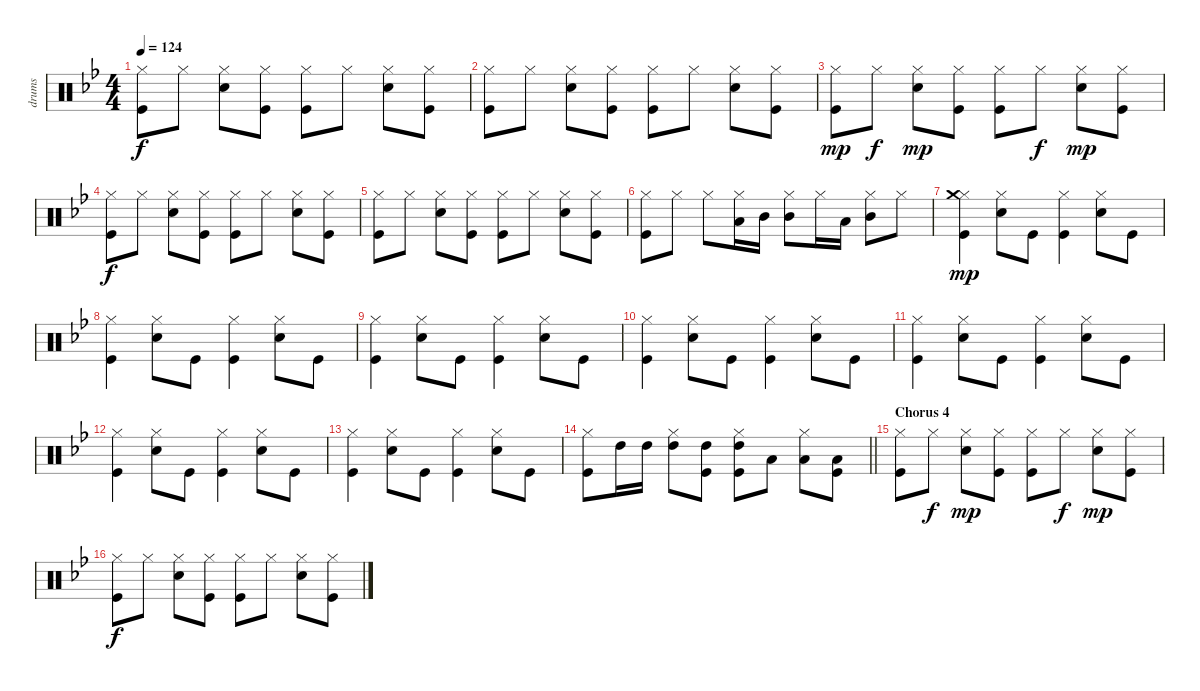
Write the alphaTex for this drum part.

\track ("drums" "drums") {instrument percussion}
\staff {score}
\articulation defaults
\ts (4 4)
\tempo 124
\clef neutral
\ks bb
("Hi-Hat (closed)" "Kick (hit)").8{dy f} "Hi-Hat (closed)".8 ("Electric Snare (hit)" "Hi-Hat (closed)").8 ("Hi-Hat (closed)" "Kick (hit)").8 ("Hi-Hat (closed)" "Kick (hit)").8 "Hi-Hat (closed)".8 ("Electric Snare (hit)" "Hi-Hat (closed)").8 ("Hi-Hat (closed)" "Kick (hit)").8 |
("Hi-Hat (closed)" "Kick (hit)").8 "Hi-Hat (closed)".8 ("Electric Snare (hit)" "Hi-Hat (closed)").8 ("Hi-Hat (closed)" "Kick (hit)").8 ("Hi-Hat (closed)" "Kick (hit)").8 "Hi-Hat (closed)".8 ("Electric Snare (hit)" "Hi-Hat (closed)").8 ("Hi-Hat (closed)" "Kick (hit)").8 |
("Hi-Hat (closed)" "Kick (hit)").8{dy mp} "Hi-Hat (closed)".8{dy f} ("Electric Snare (hit)" "Hi-Hat (closed)").8{dy mp} ("Hi-Hat (closed)" "Kick (hit)").8 ("Hi-Hat (closed)" "Kick (hit)").8 "Hi-Hat (closed)".8{dy f} ("Electric Snare (hit)" "Hi-Hat (closed)").8{dy mp} ("Hi-Hat (closed)" "Kick (hit)").8 |
("Hi-Hat (closed)" "Kick (hit)").8{dy f} "Hi-Hat (closed)".8 ("Electric Snare (hit)" "Hi-Hat (closed)").8 ("Hi-Hat (closed)" "Kick (hit)").8 ("Hi-Hat (closed)" "Kick (hit)").8 "Hi-Hat (closed)".8 ("Electric Snare (hit)" "Hi-Hat (closed)").8 ("Hi-Hat (closed)" "Kick (hit)").8 |
("Hi-Hat (closed)" "Kick (hit)").8 "Hi-Hat (closed)".8 ("Electric Snare (hit)" "Hi-Hat (closed)").8 ("Hi-Hat (closed)" "Kick (hit)").8 ("Hi-Hat (closed)" "Kick (hit)").8 "Hi-Hat (closed)".8 ("Electric Snare (hit)" "Hi-Hat (closed)").8 ("Hi-Hat (closed)" "Kick (hit)").8 |
("Hi-Hat (closed)" "Kick (hit)").8 "Hi-Hat (closed)".8 "Hi-Hat (closed)".8 ("Low Tom (hit)" "Hi-Hat (closed)").16 "Mid Tom (hit)".16 ("Mid Tom (hit)" "Hi-Hat (closed)").8 "Hi-Hat (closed)".16 "Low Tom (hit)".16 ("Mid Tom (hit)" "Hi-Hat (closed)").8 "Hi-Hat (closed)".8 |
("Kick (hit)" "Hi-Hat (closed)" "Crash medium (hit)").4{dy mp} ("Electric Snare (hit)" "Hi-Hat (closed)").8 "Kick (hit)".8 ("Kick (hit)" "Hi-Hat (closed)").4 ("Electric Snare (hit)" "Hi-Hat (closed)").8 "Kick (hit)".8 |
("Kick (hit)" "Hi-Hat (closed)").4 ("Electric Snare (hit)" "Hi-Hat (closed)").8 "Kick (hit)".8 ("Kick (hit)" "Hi-Hat (closed)").4 ("Electric Snare (hit)" "Hi-Hat (closed)").8 "Kick (hit)".8 |
("Kick (hit)" "Hi-Hat (closed)").4 ("Electric Snare (hit)" "Hi-Hat (closed)").8 "Kick (hit)".8 ("Kick (hit)" "Hi-Hat (closed)").4 ("Electric Snare (hit)" "Hi-Hat (closed)").8 "Kick (hit)".8 |
("Kick (hit)" "Hi-Hat (closed)").4 ("Electric Snare (hit)" "Hi-Hat (closed)").8 "Kick (hit)".8 ("Kick (hit)" "Hi-Hat (closed)").4 ("Electric Snare (hit)" "Hi-Hat (closed)").8 "Kick (hit)".8 |
("Kick (hit)" "Hi-Hat (closed)").4 ("Electric Snare (hit)" "Hi-Hat (closed)").8 "Kick (hit)".8 ("Kick (hit)" "Hi-Hat (closed)").4 ("Electric Snare (hit)" "Hi-Hat (closed)").8 "Kick (hit)".8 |
("Kick (hit)" "Hi-Hat (closed)").4 ("Electric Snare (hit)" "Hi-Hat (closed)").8 "Kick (hit)".8 ("Kick (hit)" "Hi-Hat (closed)").4 ("Electric Snare (hit)" "Hi-Hat (closed)").8 "Kick (hit)".8 |
("Kick (hit)" "Hi-Hat (closed)").4 ("Electric Snare (hit)" "Hi-Hat (closed)").8 "Kick (hit)".8 ("Kick (hit)" "Hi-Hat (closed)").4 ("Electric Snare (hit)" "Hi-Hat (closed)").8 "Kick (hit)".8 |
\barLineRight lightlight
("Kick (hit)" "Hi-Hat (closed)").8 "High Tom (hit)".16 "High Tom (hit)".16 ("Hi-Hat (closed)" "High Tom (hit)").8 ("Kick (hit)" "High Tom (hit)").8 ("Kick (hit)" "Hi-Hat (closed)" "High Tom (hit)").8 "Low Tom (hit)".8 ("Low Floor Tom (hit)" "Hi-Hat (closed)").8 ("Low Floor Tom (hit)" "Kick (hit)").8 |
\section ("" "Chorus 4")
("Hi-Hat (closed)" "Kick (hit)").8 "Hi-Hat (closed)".8{dy f} ("Electric Snare (hit)" "Hi-Hat (closed)").8{dy mp} ("Hi-Hat (closed)" "Kick (hit)").8 ("Hi-Hat (closed)" "Kick (hit)").8 "Hi-Hat (closed)".8{dy f} ("Electric Snare (hit)" "Hi-Hat (closed)").8{dy mp} ("Hi-Hat (closed)" "Kick (hit)").8 |
("Hi-Hat (closed)" "Kick (hit)").8{dy f} "Hi-Hat (closed)".8 ("Electric Snare (hit)" "Hi-Hat (closed)").8 ("Hi-Hat (closed)" "Kick (hit)").8 ("Hi-Hat (closed)" "Kick (hit)").8 "Hi-Hat (closed)".8 ("Electric Snare (hit)" "Hi-Hat (closed)").8 ("Hi-Hat (closed)" "Kick (hit)").8
